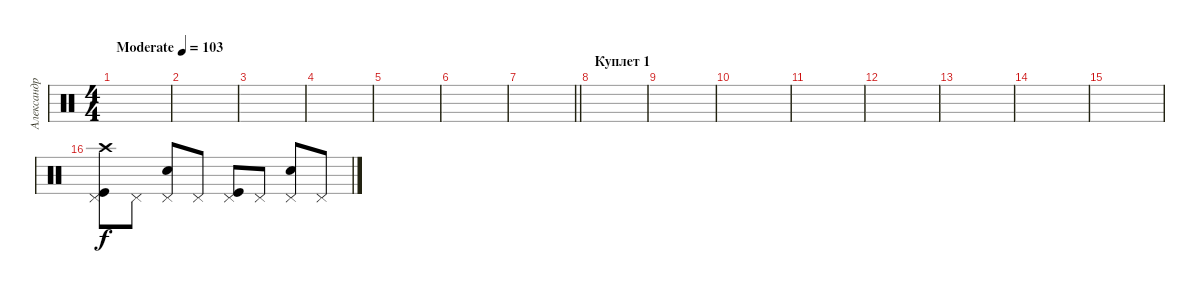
\track ("Александр Ерохин (ударные)" "Александр ") {instrument percussion}
\staff {score}
\articulation defaults
\ts (4 4)
\tempo (103 "Moderate")
\clef neutral
\ks c
|
|
|
|
|
|
\barLineRight lightlight
|
\section ("" "Куплет 1")
|
|
|
|
|
|
|
|
("Kick (hit)" "Pedal Hi-Hat (hit)" "Crash high (hit)").8 "Pedal Hi-Hat (hit)".8 ("Pedal Hi-Hat (hit)" "Snare (hit) 2").8 "Pedal Hi-Hat (hit)".8 ("Kick (hit)" "Pedal Hi-Hat (hit)").8 "Pedal Hi-Hat (hit)".8 ("Pedal Hi-Hat (hit)" "Snare (hit) 2").8 "Pedal Hi-Hat (hit)".8
